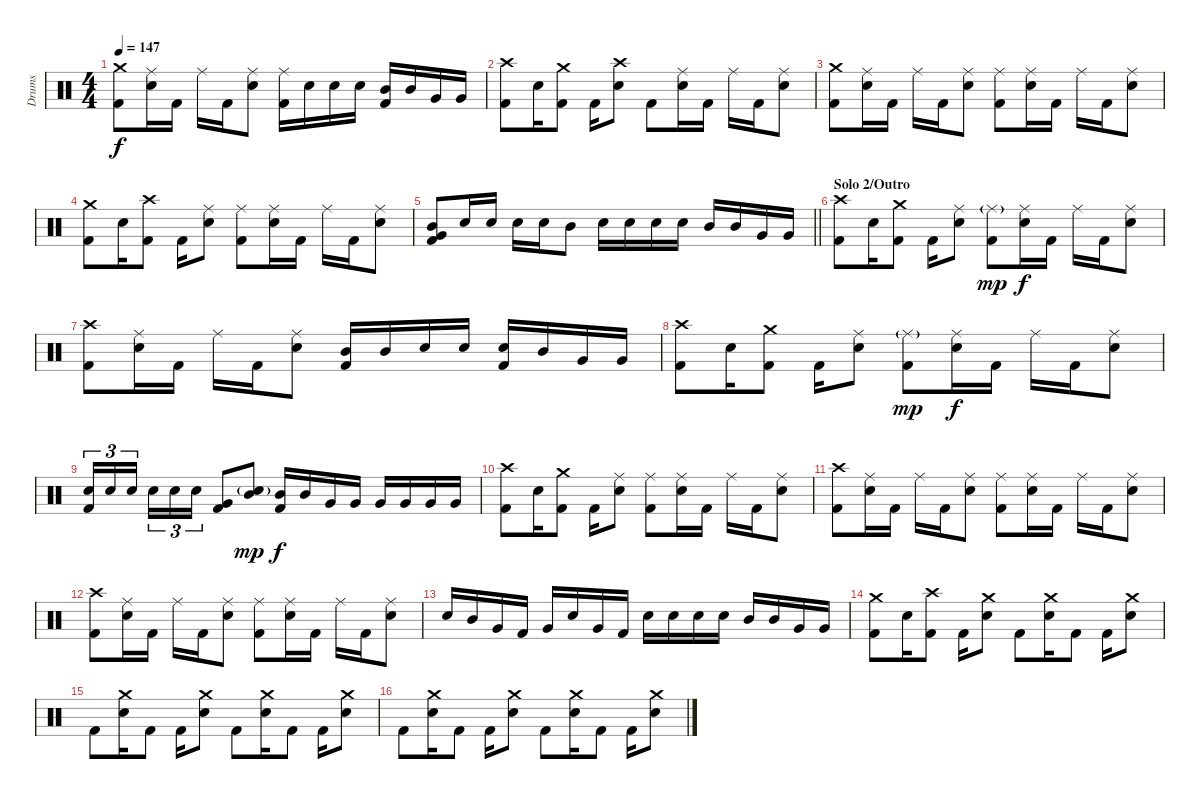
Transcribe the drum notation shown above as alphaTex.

\track ("Drums" "Drums") {instrument percussion}
\staff {score}
\articulation defaults
\ts (4 4)
\tempo 147
\clef neutral
\ks aminor
("Crash medium (hit)" "Kick (hit) 2").8{dy f} ("Ride (middle)" "Electric Snare (hit)").16 "Kick (hit) 2".16 "Ride (middle)".16 "Kick (hit) 2".16 ("Ride (middle)" "Electric Snare (hit)").8 ("Ride (middle)" "Kick (hit) 2").16 "Electric Snare (hit)".16 "Electric Snare (hit)".16 "Electric Snare (hit)".16 ("Mid Tom (hit)" "Kick (hit) 2").16 "Mid Tom (hit)".16 "Very Low Tom (hit)".16 "Very Low Tom (hit)".16 |
("Crash high (hit)" "Kick (hit) 2").8 "Electric Snare (hit)".16 ("Crash medium (hit)" "Kick (hit) 2").8 "Kick (hit) 2".16 ("Crash high (hit)" "Electric Snare (hit)").8 "Kick (hit) 2".8 ("Ride (middle)" "Electric Snare (hit)").16 "Kick (hit) 2".16 "Ride (middle)".16 "Kick (hit) 2".16 ("Ride (middle)" "Electric Snare (hit)").8 |
("Crash medium (hit)" "Kick (hit) 2").8 ("Ride (middle)" "Electric Snare (hit)").16 "Kick (hit) 2".16 "Ride (middle)".16 "Kick (hit) 2".16 ("Ride (middle)" "Electric Snare (hit)").8 ("Ride (middle)" "Kick (hit) 2").8 ("Ride (middle)" "Electric Snare (hit)").16 "Kick (hit) 2".16 "Ride (middle)".16 "Kick (hit) 2".16 ("Ride (middle)" "Electric Snare (hit)").8 |
("Crash medium (hit)" "Kick (hit) 2").8 "Electric Snare (hit)".16 ("Crash high (hit)" "Kick (hit) 2").8 "Kick (hit) 2".16 ("Ride (middle)" "Electric Snare (hit)").8 ("Ride (middle)" "Kick (hit) 2").8 ("Ride (middle)" "Electric Snare (hit)").16 "Kick (hit) 2".16 "Ride (middle)".16 "Kick (hit) 2".16 ("Ride (middle)" "Electric Snare (hit)").8 |
\barLineRight lightlight
("Mid Tom (hit)" "Very Low Tom (hit)" "Kick (hit) 2").8 "Electric Snare (hit)".16 "Electric Snare (hit)".16 "Electric Snare (hit)".16 "Electric Snare (hit)".16 "Mid Tom (hit)".8 "Electric Snare (hit)".16 "Electric Snare (hit)".16 "Electric Snare (hit)".16 "Electric Snare (hit)".16 "Mid Tom (hit)".16 "Mid Tom (hit)".16 "Very Low Tom (hit)".16 "Very Low Tom (hit)".16 |
\section ("" "Solo 2/Outro")
("Crash high (hit)" "Kick (hit) 2").8 "Electric Snare (hit)".16 ("Crash medium (hit)" "Kick (hit) 2").8 "Kick (hit) 2".16 ("Ride (middle)" "Electric Snare (hit)").8 ("Ride (middle)"{g} "Kick (hit) 2").8{dy mp} ("Ride (middle)" "Electric Snare (hit)").16{dy f} "Kick (hit) 2".16 "Ride (middle)".16 "Kick (hit) 2".16 ("Ride (middle)" "Electric Snare (hit)").8 |
("Crash high (hit)" "Kick (hit) 2").8 ("Ride (middle)" "Electric Snare (hit)").16 "Kick (hit) 2".16 "Ride (middle)".16 "Kick (hit) 2".16 ("Ride (middle)" "Electric Snare (hit)").8 ("Mid Tom (hit)" "Kick (hit) 2").16 "Mid Tom (hit)".16 "Electric Snare (hit)".16 "Electric Snare (hit)".16 ("Electric Snare (hit)" "Kick (hit) 2").16 "Mid Tom (hit)".16 "Very Low Tom (hit)".16 "Very Low Tom (hit)".16 |
("Crash high (hit)" "Kick (hit) 2").8 "Electric Snare (hit)".16 ("Crash medium (hit)" "Kick (hit) 2").8 "Kick (hit) 2".16 ("Ride (middle)" "Electric Snare (hit)").8 ("Ride (middle)"{g} "Kick (hit) 2").8{dy mp} ("Ride (middle)" "Electric Snare (hit)").16{dy f} "Kick (hit) 2".16 "Ride (middle)".16 "Kick (hit) 2".16 ("Ride (middle)" "Electric Snare (hit)").8 |
("Electric Snare (hit)" "Kick (hit) 2").16{tu (3 2)} "Electric Snare (hit)".16{tu (3 2)} "Electric Snare (hit)".16{tu (3 2)} "Electric Snare (hit)".16{tu (3 2)} "Electric Snare (hit)".16{tu (3 2)} "Electric Snare (hit)".16{tu (3 2)} ("Very Low Tom (hit)" "Kick (hit) 2").8 ("Mid Tom (hit)" "Electric Snare (hit)"{g}).8{dy mp} ("Mid Tom (hit)" "Kick (hit) 2").16{dy f} "Mid Tom (hit)".16 "Very Low Tom (hit)".16 "Very Low Tom (hit)".16 "Very Low Tom (hit)".16 "Very Low Tom (hit)".16 "Very Low Tom (hit)".16 "Very Low Tom (hit)".16 |
("Crash high (hit)" "Kick (hit) 2").8 "Electric Snare (hit)".16 ("Crash medium (hit)" "Kick (hit) 2").8 "Kick (hit) 2".16 ("Ride (middle)" "Electric Snare (hit)").8 ("Ride (middle)" "Kick (hit) 2").8 ("Ride (middle)" "Electric Snare (hit)").16 "Kick (hit) 2".16 "Ride (middle)".16 "Kick (hit) 2".16 ("Ride (middle)" "Electric Snare (hit)").8 |
("Crash high (hit)" "Kick (hit) 2").8 ("Ride (middle)" "Electric Snare (hit)").16 "Kick (hit) 2".16 "Ride (middle)".16 "Kick (hit) 2".16 ("Ride (middle)" "Electric Snare (hit)").8 ("Ride (middle)" "Kick (hit) 2").8 ("Ride (middle)" "Electric Snare (hit)").16 "Kick (hit) 2".16 "Ride (middle)".16 "Kick (hit) 2".16 ("Ride (middle)" "Electric Snare (hit)").8 |
("Crash high (hit)" "Kick (hit) 2").8 ("Ride (middle)" "Electric Snare (hit)").16 "Kick (hit) 2".16 "Ride (middle)".16 "Kick (hit) 2".16 ("Ride (middle)" "Electric Snare (hit)").8 ("Ride (middle)" "Kick (hit) 2").8 ("Ride (middle)" "Electric Snare (hit)").16 "Kick (hit) 2".16 "Ride (middle)".16 "Kick (hit) 2".16 ("Ride (middle)" "Electric Snare (hit)").8 |
"Electric Snare (hit)".16 "Mid Tom (hit)".16 "Very Low Tom (hit)".16 "Kick (hit) 2".16 "Very Low Tom (hit)".16 "Electric Snare (hit)".16 "Very Low Tom (hit)".16 "Kick (hit) 2".16 "Electric Snare (hit)".16 "Electric Snare (hit)".16 "Electric Snare (hit)".16 "Electric Snare (hit)".16 "Mid Tom (hit)".16 "Mid Tom (hit)".16 "Very Low Tom (hit)".16 "Very Low Tom (hit)".16 |
("Crash medium (hit)" "Kick (hit) 2").8 "Electric Snare (hit)".16 ("Crash high (hit)" "Kick (hit) 2").8 "Kick (hit) 2".16 ("Crash medium (hit)" "Electric Snare (hit)").8 "Kick (hit) 2".8 ("Crash medium (hit)" "Electric Snare (hit)").16 "Kick (hit) 2".8 "Kick (hit) 2".16 ("Crash medium (hit)" "Electric Snare (hit)").8 |
"Kick (hit) 2".8 ("Crash medium (hit)" "Electric Snare (hit)").16 "Kick (hit) 2".8 "Kick (hit) 2".16 ("Crash medium (hit)" "Electric Snare (hit)").8 "Kick (hit) 2".8 ("Crash medium (hit)" "Electric Snare (hit)").16 "Kick (hit) 2".8 "Kick (hit) 2".16 ("Crash medium (hit)" "Electric Snare (hit)").8 |
"Kick (hit) 2".8 ("Crash medium (hit)" "Electric Snare (hit)").16 "Kick (hit) 2".8 "Kick (hit) 2".16 ("Crash medium (hit)" "Electric Snare (hit)").8 "Kick (hit) 2".8 ("Crash medium (hit)" "Electric Snare (hit)").16 "Kick (hit) 2".8 "Kick (hit) 2".16 ("Crash medium (hit)" "Electric Snare (hit)").8
